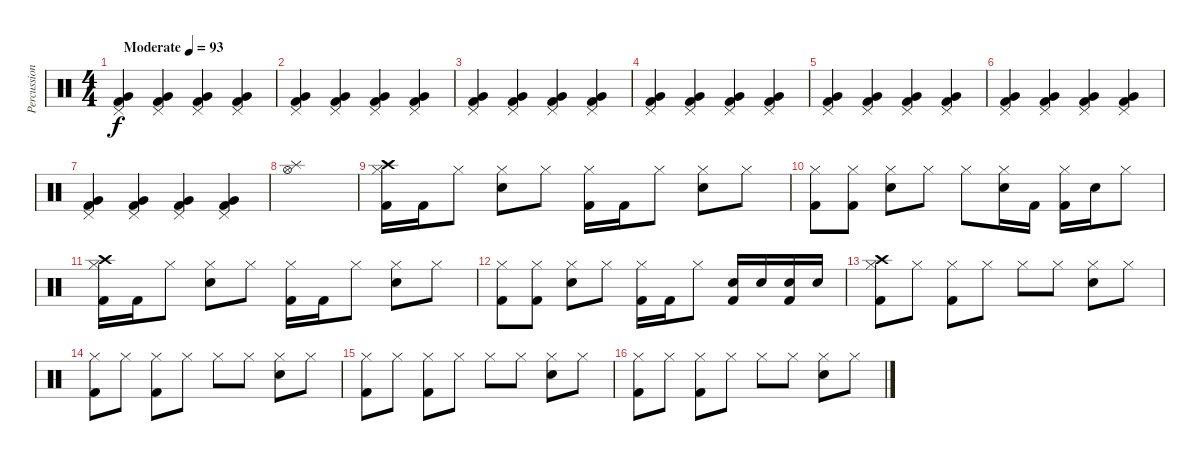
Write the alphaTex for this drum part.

\track ("Percussion" "Percussion") {instrument percussion}
\staff {score}
\articulation defaults
\ts (4 4)
\tempo (93 "Moderate")
\clef neutral
\ks c
("Pedal Hi-Hat (hit)" "Very Low Tom (hit)" "Kick (hit) 2").4{dy f} ("Pedal Hi-Hat (hit)" "Very Low Tom (hit)" "Kick (hit) 2").4 ("Pedal Hi-Hat (hit)" "Very Low Tom (hit)" "Kick (hit) 2").4 ("Pedal Hi-Hat (hit)" "Very Low Tom (hit)" "Kick (hit) 2").4 |
("Pedal Hi-Hat (hit)" "Very Low Tom (hit)" "Kick (hit) 2").4 ("Pedal Hi-Hat (hit)" "Very Low Tom (hit)" "Kick (hit) 2").4 ("Pedal Hi-Hat (hit)" "Very Low Tom (hit)" "Kick (hit) 2").4 ("Pedal Hi-Hat (hit)" "Very Low Tom (hit)" "Kick (hit) 2").4 |
("Pedal Hi-Hat (hit)" "Very Low Tom (hit)" "Kick (hit) 2").4 ("Pedal Hi-Hat (hit)" "Very Low Tom (hit)" "Kick (hit) 2").4 ("Pedal Hi-Hat (hit)" "Very Low Tom (hit)" "Kick (hit) 2").4 ("Pedal Hi-Hat (hit)" "Very Low Tom (hit)" "Kick (hit) 2").4 |
("Pedal Hi-Hat (hit)" "Very Low Tom (hit)" "Kick (hit) 2").4 ("Pedal Hi-Hat (hit)" "Very Low Tom (hit)" "Kick (hit) 2").4 ("Pedal Hi-Hat (hit)" "Very Low Tom (hit)" "Kick (hit) 2").4 ("Pedal Hi-Hat (hit)" "Very Low Tom (hit)" "Kick (hit) 2").4 |
("Pedal Hi-Hat (hit)" "Very Low Tom (hit)" "Kick (hit) 2").4 ("Pedal Hi-Hat (hit)" "Very Low Tom (hit)" "Kick (hit) 2").4 ("Pedal Hi-Hat (hit)" "Very Low Tom (hit)" "Kick (hit) 2").4 ("Pedal Hi-Hat (hit)" "Very Low Tom (hit)" "Kick (hit) 2").4 |
("Pedal Hi-Hat (hit)" "Very Low Tom (hit)" "Kick (hit) 2").4 ("Pedal Hi-Hat (hit)" "Very Low Tom (hit)" "Kick (hit) 2").4 ("Pedal Hi-Hat (hit)" "Very Low Tom (hit)" "Kick (hit) 2").4 ("Pedal Hi-Hat (hit)" "Very Low Tom (hit)" "Kick (hit) 2").4 |
("Pedal Hi-Hat (hit)" "Very Low Tom (hit)" "Kick (hit) 2").4 ("Pedal Hi-Hat (hit)" "Very Low Tom (hit)" "Kick (hit) 2").4 ("Pedal Hi-Hat (hit)" "Very Low Tom (hit)" "Kick (hit) 2").4 ("Pedal Hi-Hat (hit)" "Very Low Tom (hit)" "Kick (hit) 2").4 |
("Splash (hit)" "Hi-Hat (open)").1 |
("Crash high (hit)" "Hi-Hat (closed)" "Kick (hit) 2").16 "Kick (hit) 2".16 "Hi-Hat (closed)".8 ("Hi-Hat (closed)" "Electric Snare (hit)").8 "Hi-Hat (closed)".8 ("Hi-Hat (closed)" "Kick (hit) 2").16 "Kick (hit) 2".16 "Hi-Hat (closed)".8 ("Hi-Hat (closed)" "Electric Snare (hit)").8 "Hi-Hat (closed)".8 |
("Hi-Hat (closed)" "Kick (hit) 2").8 ("Hi-Hat (closed)" "Kick (hit) 2").8 ("Hi-Hat (closed)" "Electric Snare (hit)").8 "Hi-Hat (closed)".8 "Hi-Hat (closed)".8 ("Hi-Hat (closed)" "Electric Snare (hit)").16 "Kick (hit) 2".16 ("Hi-Hat (closed)" "Kick (hit) 2").16 "Electric Snare (hit)".16 "Hi-Hat (closed)".8 |
("Crash high (hit)" "Hi-Hat (closed)" "Kick (hit) 2").16 "Kick (hit) 2".16 "Hi-Hat (closed)".8 ("Hi-Hat (closed)" "Electric Snare (hit)").8 "Hi-Hat (closed)".8 ("Hi-Hat (closed)" "Kick (hit) 2").16 "Kick (hit) 2".16 "Hi-Hat (closed)".8 ("Hi-Hat (closed)" "Electric Snare (hit)").8 "Hi-Hat (closed)".8 |
("Hi-Hat (closed)" "Kick (hit) 2").8 ("Hi-Hat (closed)" "Kick (hit) 2").8 ("Hi-Hat (closed)" "Electric Snare (hit)").8 "Hi-Hat (closed)".8 ("Hi-Hat (closed)" "Kick (hit) 2").16 "Kick (hit) 2".16 "Hi-Hat (closed)".8 ("Electric Snare (hit)" "Kick (hit) 2").16 "Electric Snare (hit)".16 ("Electric Snare (hit)" "Kick (hit) 2").16 "Electric Snare (hit)".16 |
("Crash high (hit)" "Hi-Hat (closed)" "Kick (hit) 2").8 "Hi-Hat (closed)".8 ("Hi-Hat (closed)" "Kick (hit) 2").8 "Hi-Hat (closed)".8 "Hi-Hat (closed)".8 "Hi-Hat (closed)".8 ("Hi-Hat (closed)" "Electric Snare (hit)").8 "Hi-Hat (closed)".8 |
("Hi-Hat (closed)" "Kick (hit) 2").8 "Hi-Hat (closed)".8 ("Hi-Hat (closed)" "Kick (hit) 2").8 "Hi-Hat (closed)".8 "Hi-Hat (closed)".8 "Hi-Hat (closed)".8 ("Hi-Hat (closed)" "Electric Snare (hit)").8 "Hi-Hat (closed)".8 |
("Hi-Hat (closed)" "Kick (hit) 2").8 "Hi-Hat (closed)".8 ("Hi-Hat (closed)" "Kick (hit) 2").8 "Hi-Hat (closed)".8 "Hi-Hat (closed)".8 "Hi-Hat (closed)".8 ("Hi-Hat (closed)" "Electric Snare (hit)").8 "Hi-Hat (closed)".8 |
("Hi-Hat (closed)" "Kick (hit) 2").8 "Hi-Hat (closed)".8 ("Hi-Hat (closed)" "Kick (hit) 2").8 "Hi-Hat (closed)".8 "Hi-Hat (closed)".8 "Hi-Hat (closed)".8 ("Hi-Hat (closed)" "Electric Snare (hit)").8 "Hi-Hat (closed)".8
